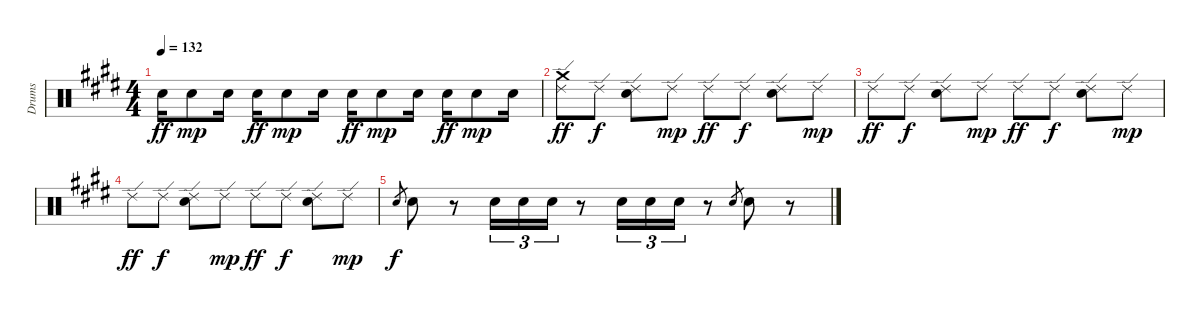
\track ("Drums" "Drums") {instrument percussion}
\staff {score}
\articulation defaults
\ts (4 4)
\tempo 132
\clef neutral
\ks e "Electric Snare (hit)".16{dy ff} "Electric Snare (hit)".8{dy mp} "Electric Snare (hit)".16 "Electric Snare (hit)".16{dy ff} "Electric Snare (hit)".8{dy mp} "Electric Snare (hit)".16 "Electric Snare (hit)".16{dy ff} "Electric Snare (hit)".8{dy mp} "Electric Snare (hit)".16 "Electric Snare (hit)".16{dy ff} "Electric Snare (hit)".8{dy mp} "Electric Snare (hit)".16
|
("Crash medium (hit)" "Ride (edge) 2").8{dy ff} "Ride (edge) 2".8{dy f} ("Electric Snare (hit)" "Ride (edge) 2").8{volume 3} "Ride (edge) 2".8{dy mp} "Ride (edge) 2".8{dy ff} "Ride (edge) 2".8{dy f} ("Electric Snare (hit)" "Ride (edge) 2").8 "Ride (edge) 2".8{dy mp} |
"Ride (edge) 2".8{dy ff} "Ride (edge) 2".8{dy f} ("Electric Snare (hit)" "Ride (edge) 2").8 "Ride (edge) 2".8{dy mp} "Ride (edge) 2".8{dy ff} "Ride (edge) 2".8{dy f} ("Electric Snare (hit)" "Ride (edge) 2").8 "Ride (edge) 2".8{dy mp} |
"Ride (edge) 2".8{dy ff} "Ride (edge) 2".8{dy f} ("Electric Snare (hit)" "Ride (edge) 2").8 "Ride (edge) 2".8{dy mp} "Ride (edge) 2".8{dy ff} "Ride (edge) 2".8{dy f} ("Electric Snare (hit)" "Ride (edge) 2").8 "Ride (edge) 2".8{dy mp} |
"Electric Snare (hit)".8{gr dy f} "Electric Snare (hit)".8 r.8 "Electric Snare (hit)".16{tu (3 2)} "Electric Snare (hit)".16{tu (3 2)} "Electric Snare (hit)".16{tu (3 2)} r.8 "Electric Snare (hit)".16{tu (3 2)} "Electric Snare (hit)".16{tu (3 2)} "Electric Snare (hit)".16{tu (3 2)} r.8 "Electric Snare (hit)".8{gr} "Electric Snare (hit)".8 r.8
